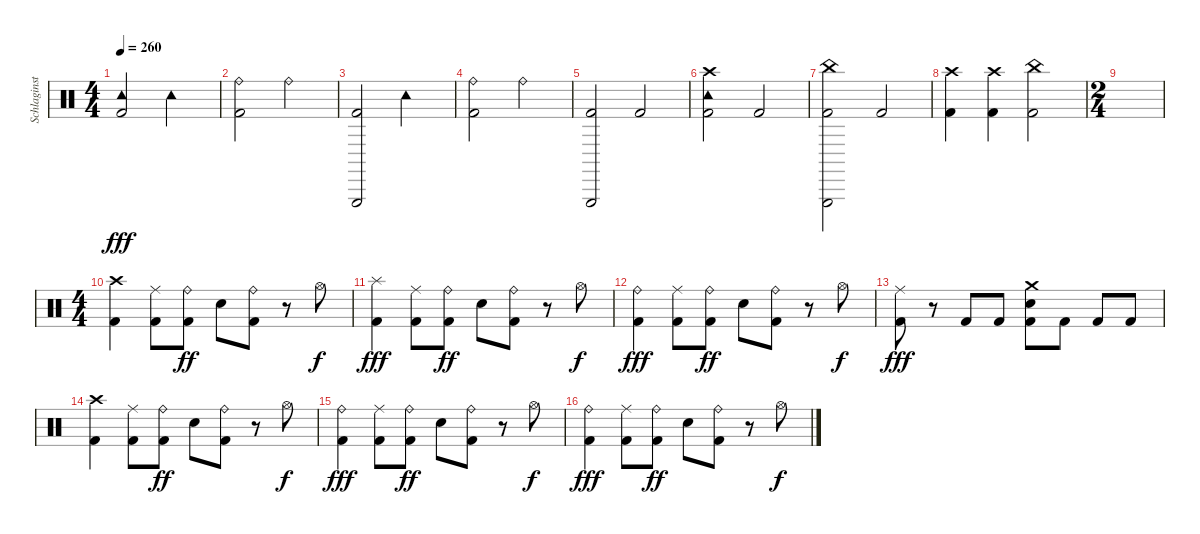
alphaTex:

\track ("Schlaginstrumente - Auswahl" "Schlaginst") {instrument percussion}
\staff {score}
\articulation defaults
\ts (4 4)
\tempo 260
\clef neutral
\ks c
("Tambourine (hit)" "Kick (hit) 2").2{dy fff} "Tambourine (hit)".2 |
("Ride (bell)" "Kick (hit) 2").2 "Ride (bell)".2 |
("Triangle (hit)" "Kick (hit) 2").2 "Tambourine (hit)".2 |
("Ride (bell)" "Kick (hit) 2").2 "Ride (bell)".2 |
("Triangle (hit)" "Kick (hit) 2").2 "Kick (hit) 2".2 |
("Tambourine (hit)" "Crash high (hit)" "Kick (hit) 2").2 "Kick (hit) 2".2 |
("Triangle (hit)" "China (hit)" "Kick (hit) 2").2 "Kick (hit) 2".2 |
("Crash high (hit)" "Kick (hit) 2").4 ("Crash high (hit)" "Kick (hit) 2").4 ("China (hit)" "Kick (hit) 2").2 |
\ts (2 4)
|
\ts (4 4)
("Crash high (hit)" "Kick (hit) 2").4 ("Ride (middle)" "Kick (hit) 2").8 ("Ride (bell)" "Kick (hit) 2").8{dy ff} "Snare (hit) 2".8 ("Ride (bell)" "Kick (hit) 2").8 r.8 "Hi-Hat (open)".8{dy f} |
("Splash (hit)" "Kick (hit) 2").4{dy fff} ("Ride (middle)" "Kick (hit) 2").8 ("Ride (bell)" "Kick (hit) 2").8{dy ff} "Snare (hit) 2".8 ("Ride (bell)" "Kick (hit) 2").8 r.8 "Hi-Hat (open)".8{dy f} |
("Ride (bell)" "Kick (hit) 2").4{dy fff} ("Ride (middle)" "Kick (hit) 2").8 ("Ride (bell)" "Kick (hit) 2").8{dy ff} "Snare (hit) 2".8 ("Ride (bell)" "Kick (hit) 2").8 r.8 "Hi-Hat (open)".8{dy f} |
("Ride (middle)" "Kick (hit) 2").8{dy fff} r.8 "Kick (hit) 2".8 "Kick (hit) 2".8 ("Crash medium (hit)" "Snare (hit) 2" "Kick (hit) 2").8 "Kick (hit) 2".8 "Kick (hit) 2".8 "Kick (hit) 2".8 |
("Crash high (hit)" "Kick (hit) 2").4 ("Ride (middle)" "Kick (hit) 2").8 ("Ride (bell)" "Kick (hit) 2").8{dy ff} "Snare (hit) 2".8 ("Ride (bell)" "Kick (hit) 2").8 r.8 "Hi-Hat (open)".8{dy f} |
("Ride (bell)" "Kick (hit) 2").4{dy fff} ("Ride (middle)" "Kick (hit) 2").8 ("Ride (bell)" "Kick (hit) 2").8{dy ff} "Snare (hit) 2".8 ("Ride (bell)" "Kick (hit) 2").8 r.8 "Hi-Hat (open)".8{dy f} |
("Ride (bell)" "Kick (hit) 2").4{dy fff} ("Ride (middle)" "Kick (hit) 2").8 ("Ride (bell)" "Kick (hit) 2").8{dy ff} "Snare (hit) 2".8 ("Ride (bell)" "Kick (hit) 2").8 r.8 "Hi-Hat (open)".8{dy f}
